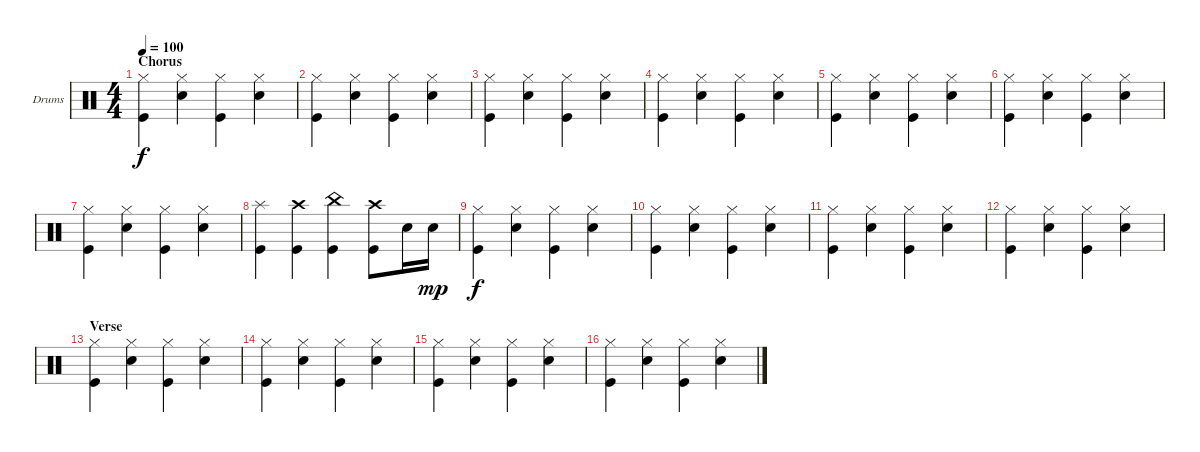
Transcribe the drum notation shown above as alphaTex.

\defaultSystemsLayout 4
\bracketExtendMode groupsimilarinstruments
\firstSystemTrackNameOrientation horizontal
\otherSystemsTrackNameOrientation horizontal
\track ("Drumkit" "Drums") {instrument percussion}
\staff {score}
\articulation defaults
\ts (4 4)
\section ("" "Chorus")
\tempo 100
\clef neutral
\ks c
("Kick (hit)" "Hi-Hat (closed)").4{dy f} ("Snare (hit) 2" "Hi-Hat (closed)").4 ("Hi-Hat (closed)" "Kick (hit)").4 ("Hi-Hat (closed)" "Snare (hit) 2").4 |
("Kick (hit)" "Hi-Hat (closed)").4 ("Snare (hit) 2" "Hi-Hat (closed)").4 ("Hi-Hat (closed)" "Kick (hit)").4 ("Hi-Hat (closed)" "Snare (hit) 2").4 |
("Kick (hit)" "Hi-Hat (closed)").4 ("Snare (hit) 2" "Hi-Hat (closed)").4 ("Hi-Hat (closed)" "Kick (hit)").4 ("Hi-Hat (closed)" "Snare (hit) 2").4 |
("Kick (hit)" "Hi-Hat (closed)").4 ("Snare (hit) 2" "Hi-Hat (closed)").4 ("Hi-Hat (closed)" "Kick (hit)").4 ("Hi-Hat (closed)" "Snare (hit) 2").4 |
("Kick (hit)" "Hi-Hat (closed)").4 ("Snare (hit) 2" "Hi-Hat (closed)").4 ("Hi-Hat (closed)" "Kick (hit)").4 ("Hi-Hat (closed)" "Snare (hit) 2").4 |
("Kick (hit)" "Hi-Hat (closed)").4 ("Snare (hit) 2" "Hi-Hat (closed)").4 ("Hi-Hat (closed)" "Kick (hit)").4 ("Hi-Hat (closed)" "Snare (hit) 2").4 |
("Kick (hit)" "Hi-Hat (closed)").4 ("Snare (hit) 2" "Hi-Hat (closed)").4 ("Hi-Hat (closed)" "Kick (hit)").4 ("Hi-Hat (closed)" "Snare (hit) 2").4 |
("Kick (hit)" "Splash (hit)").4 ("Kick (hit)" "Crash high (hit)").4 ("Kick (hit)" "China (hit)").4 ("Kick (hit)" "Crash high (hit)").8 "Snare (hit) 2".16 "Snare (hit) 2".16{dy mp} |
("Kick (hit)" "Hi-Hat (closed)").4{dy f} ("Snare (hit) 2" "Hi-Hat (closed)").4 ("Hi-Hat (closed)" "Kick (hit)").4 ("Hi-Hat (closed)" "Snare (hit) 2").4 |
("Kick (hit)" "Hi-Hat (closed)").4 ("Snare (hit) 2" "Hi-Hat (closed)").4 ("Hi-Hat (closed)" "Kick (hit)").4 ("Hi-Hat (closed)" "Snare (hit) 2").4 |
("Kick (hit)" "Hi-Hat (closed)").4 ("Snare (hit) 2" "Hi-Hat (closed)").4 ("Hi-Hat (closed)" "Kick (hit)").4 ("Hi-Hat (closed)" "Snare (hit) 2").4 |
("Kick (hit)" "Hi-Hat (closed)").4 ("Snare (hit) 2" "Hi-Hat (closed)").4 ("Hi-Hat (closed)" "Kick (hit)").4 ("Hi-Hat (closed)" "Snare (hit) 2").4 |
\section ("" "Verse")
("Kick (hit)" "Hi-Hat (closed)").4 ("Snare (hit) 2" "Hi-Hat (closed)").4 ("Hi-Hat (closed)" "Kick (hit)").4 ("Hi-Hat (closed)" "Snare (hit) 2").4 |
("Kick (hit)" "Hi-Hat (closed)").4 ("Snare (hit) 2" "Hi-Hat (closed)").4 ("Hi-Hat (closed)" "Kick (hit)").4 ("Hi-Hat (closed)" "Snare (hit) 2").4 |
("Kick (hit)" "Hi-Hat (closed)").4 ("Snare (hit) 2" "Hi-Hat (closed)").4 ("Hi-Hat (closed)" "Kick (hit)").4 ("Hi-Hat (closed)" "Snare (hit) 2").4 |
("Kick (hit)" "Hi-Hat (closed)").4 ("Snare (hit) 2" "Hi-Hat (closed)").4 ("Hi-Hat (closed)" "Kick (hit)").4 ("Hi-Hat (closed)" "Snare (hit) 2").4
